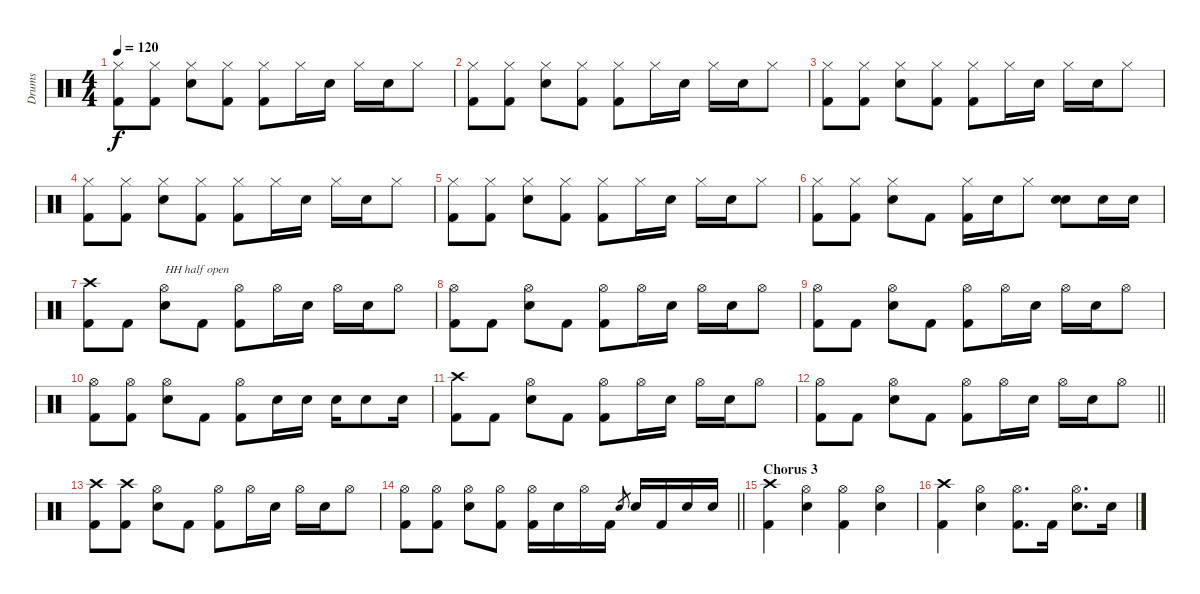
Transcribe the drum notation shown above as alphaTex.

\track ("Drums" "Drums") {instrument percussion}
\staff {score}
\articulation defaults
\ts (4 4)
\tempo 120
\clef neutral
\ks c
("Hi-Hat (closed)" "Kick (hit) 2").8{dy f} ("Hi-Hat (closed)" "Kick (hit) 2").8 ("Hi-Hat (closed)" "Electric Snare (hit)").8 ("Hi-Hat (closed)" "Kick (hit) 2").8 ("Hi-Hat (closed)" "Kick (hit) 2").8 "Hi-Hat (closed)".16 "Electric Snare (hit)".16 "Hi-Hat (closed)".16 "Electric Snare (hit)".16 "Hi-Hat (closed)".8 |
("Hi-Hat (closed)" "Kick (hit) 2").8 ("Hi-Hat (closed)" "Kick (hit) 2").8 ("Hi-Hat (closed)" "Electric Snare (hit)").8 ("Hi-Hat (closed)" "Kick (hit) 2").8 ("Hi-Hat (closed)" "Kick (hit) 2").8 "Hi-Hat (closed)".16 "Electric Snare (hit)".16 "Hi-Hat (closed)".16 "Electric Snare (hit)".16 "Hi-Hat (closed)".8 |
("Hi-Hat (closed)" "Kick (hit) 2").8 ("Hi-Hat (closed)" "Kick (hit) 2").8 ("Hi-Hat (closed)" "Electric Snare (hit)").8 ("Hi-Hat (closed)" "Kick (hit) 2").8 ("Hi-Hat (closed)" "Kick (hit) 2").8 "Hi-Hat (closed)".16 "Electric Snare (hit)".16 "Hi-Hat (closed)".16 "Electric Snare (hit)".16 "Hi-Hat (closed)".8 |
("Hi-Hat (closed)" "Kick (hit) 2").8 ("Hi-Hat (closed)" "Kick (hit) 2").8 ("Hi-Hat (closed)" "Electric Snare (hit)").8 ("Hi-Hat (closed)" "Kick (hit) 2").8 ("Hi-Hat (closed)" "Kick (hit) 2").8 "Hi-Hat (closed)".16 "Electric Snare (hit)".16 "Hi-Hat (closed)".16 "Electric Snare (hit)".16 "Hi-Hat (closed)".8 |
("Hi-Hat (closed)" "Kick (hit) 2").8 ("Hi-Hat (closed)" "Kick (hit) 2").8 ("Hi-Hat (closed)" "Electric Snare (hit)").8 ("Hi-Hat (closed)" "Kick (hit) 2").8 ("Hi-Hat (closed)" "Kick (hit) 2").8 "Hi-Hat (closed)".16 "Electric Snare (hit)".16 "Hi-Hat (closed)".16 "Electric Snare (hit)".16 "Hi-Hat (closed)".8 |
("Hi-Hat (closed)" "Kick (hit) 2").8 ("Hi-Hat (closed)" "Kick (hit) 2").8 ("Hi-Hat (closed)" "Electric Snare (hit)").8 "Kick (hit) 2".8 ("Hi-Hat (closed)" "Kick (hit) 2").16 "Electric Snare (hit)".16 "Hi-Hat (closed)".8 ("Electric Snare (hit)" "Electric Snare (hit)").8 "Electric Snare (hit)".16 "Electric Snare (hit)".16 |
("Crash high (hit)" "Kick (hit) 2").8 "Kick (hit) 2".8 ("Hi-Hat (open)" "Electric Snare (hit)").8{txt "HH half open"} "Kick (hit) 2".8 ("Hi-Hat (open)" "Kick (hit) 2").8 "Hi-Hat (open)".16 "Electric Snare (hit)".16 "Hi-Hat (open)".16 "Electric Snare (hit)".16 "Hi-Hat (open)".8 |
("Hi-Hat (open)" "Kick (hit) 2").8 "Kick (hit) 2".8 ("Hi-Hat (open)" "Electric Snare (hit)").8 "Kick (hit) 2".8 ("Hi-Hat (open)" "Kick (hit) 2").8 "Hi-Hat (open)".16 "Electric Snare (hit)".16 "Hi-Hat (open)".16 "Electric Snare (hit)".16 "Hi-Hat (open)".8 |
("Hi-Hat (open)" "Kick (hit) 2").8 "Kick (hit) 2".8 ("Hi-Hat (open)" "Electric Snare (hit)").8 "Kick (hit) 2".8 ("Hi-Hat (open)" "Kick (hit) 2").8 "Hi-Hat (open)".16 "Electric Snare (hit)".16 "Hi-Hat (open)".16 "Electric Snare (hit)".16 "Hi-Hat (open)".8 |
("Hi-Hat (open)" "Kick (hit) 2").8 ("Hi-Hat (open)" "Kick (hit) 2").8 ("Hi-Hat (open)" "Electric Snare (hit)").8 "Kick (hit) 2".8 ("Hi-Hat (open)" "Kick (hit) 2").8 "Electric Snare (hit)".16 "Electric Snare (hit)".16 "Electric Snare (hit)".16 "Electric Snare (hit)".8 "Electric Snare (hit)".16 |
("Crash high (hit)" "Kick (hit) 2").8 "Kick (hit) 2".8 ("Hi-Hat (open)" "Electric Snare (hit)").8 "Kick (hit) 2".8 ("Hi-Hat (open)" "Kick (hit) 2").8 "Hi-Hat (open)".16 "Electric Snare (hit)".16 "Hi-Hat (open)".16 "Electric Snare (hit)".16 "Hi-Hat (open)".8 |
\barLineRight lightlight
("Hi-Hat (open)" "Kick (hit) 2").8 "Kick (hit) 2".8 ("Hi-Hat (open)" "Electric Snare (hit)").8 "Kick (hit) 2".8 ("Hi-Hat (open)" "Kick (hit) 2").8 "Hi-Hat (open)".16 "Electric Snare (hit)".16 "Hi-Hat (open)".16 "Electric Snare (hit)".16 "Hi-Hat (open)".8 |
("Crash high (hit)" "Kick (hit) 2").8 ("Crash high (hit)" "Kick (hit) 2").8 ("Hi-Hat (open)" "Electric Snare (hit)").8 "Kick (hit) 2".8 ("Hi-Hat (open)" "Kick (hit) 2").8 "Hi-Hat (open)".16 "Electric Snare (hit)".16 "Hi-Hat (open)".16 "Electric Snare (hit)".16 "Hi-Hat (open)".8 |
\barLineRight lightlight
("Hi-Hat (open)" "Kick (hit) 2").8 ("Hi-Hat (open)" "Kick (hit) 2").8 ("Hi-Hat (open)" "Electric Snare (hit)").8 ("Hi-Hat (open)" "Kick (hit) 2").8 ("Hi-Hat (open)" "Kick (hit) 2").16 "Electric Snare (hit)".16 "Hi-Hat (open)".16 "Kick (hit) 2".16 "Electric Snare (hit)"{sl}.8{gr} "Electric Snare (hit)".16 "Kick (hit) 2".16 "Electric Snare (hit)".16 "Electric Snare (hit)".16 |
\section ("" "Chorus 3")
("Crash high (hit)" "Kick (hit) 2").4 ("Hi-Hat (open)" "Electric Snare (hit)").4 ("Hi-Hat (open)" "Kick (hit) 2").4 ("Hi-Hat (open)" "Electric Snare (hit)").4 |
("Crash high (hit)" "Kick (hit) 2").4 ("Hi-Hat (open)" "Electric Snare (hit)").4 ("Hi-Hat (open)" "Kick (hit) 2").8{d} "Kick (hit) 2".16 ("Hi-Hat (open)" "Electric Snare (hit)").8{d} "Electric Snare (hit)".16
